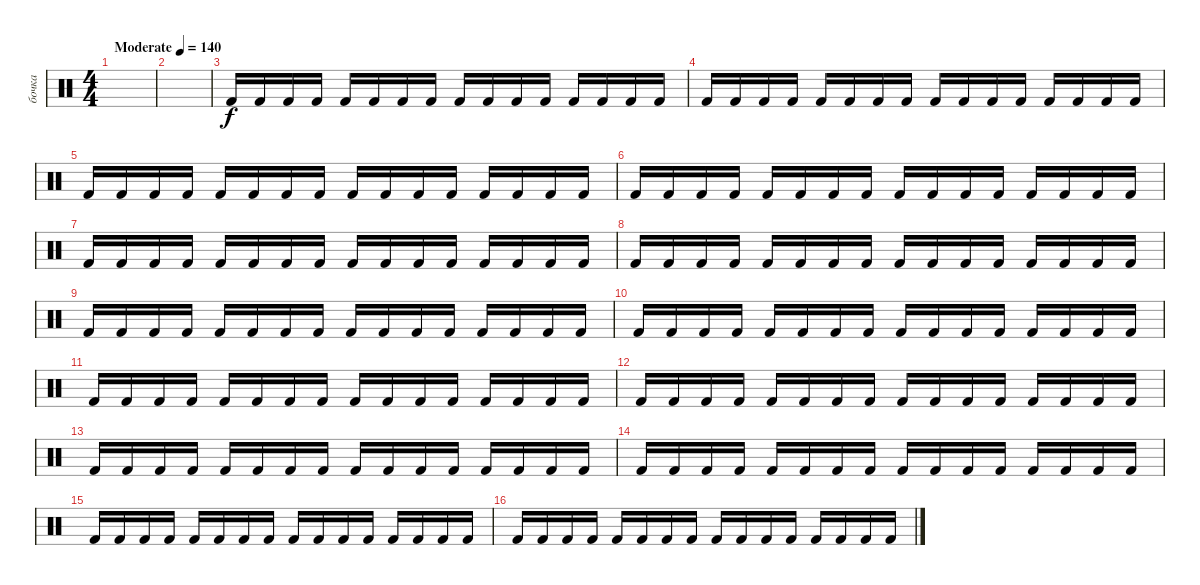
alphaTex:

\track ("бочка" "бочка") {mute instrument percussion}
\staff {score}
\articulation defaults
\ts (4 4)
\tempo (140 "Moderate")
\clef neutral
\ks c
|
|
"Kick (hit) 2".16 "Kick (hit) 2".16 "Kick (hit) 2".16 "Kick (hit) 2".16 "Kick (hit) 2".16 "Kick (hit) 2".16 "Kick (hit) 2".16 "Kick (hit) 2".16 "Kick (hit) 2".16 "Kick (hit) 2".16 "Kick (hit) 2".16 "Kick (hit) 2".16 "Kick (hit) 2".16 "Kick (hit) 2".16 "Kick (hit) 2".16 "Kick (hit) 2".16 |
"Kick (hit) 2".16 "Kick (hit) 2".16 "Kick (hit) 2".16 "Kick (hit) 2".16 "Kick (hit) 2".16 "Kick (hit) 2".16 "Kick (hit) 2".16 "Kick (hit) 2".16 "Kick (hit) 2".16 "Kick (hit) 2".16 "Kick (hit) 2".16 "Kick (hit) 2".16 "Kick (hit) 2".16 "Kick (hit) 2".16 "Kick (hit) 2".16 "Kick (hit) 2".16 |
"Kick (hit) 2".16 "Kick (hit) 2".16 "Kick (hit) 2".16 "Kick (hit) 2".16 "Kick (hit) 2".16 "Kick (hit) 2".16 "Kick (hit) 2".16 "Kick (hit) 2".16 "Kick (hit) 2".16 "Kick (hit) 2".16 "Kick (hit) 2".16 "Kick (hit) 2".16 "Kick (hit) 2".16 "Kick (hit) 2".16 "Kick (hit) 2".16 "Kick (hit) 2".16 |
"Kick (hit) 2".16 "Kick (hit) 2".16 "Kick (hit) 2".16 "Kick (hit) 2".16 "Kick (hit) 2".16 "Kick (hit) 2".16 "Kick (hit) 2".16 "Kick (hit) 2".16 "Kick (hit) 2".16 "Kick (hit) 2".16 "Kick (hit) 2".16 "Kick (hit) 2".16 "Kick (hit) 2".16 "Kick (hit) 2".16 "Kick (hit) 2".16 "Kick (hit) 2".16 |
"Kick (hit) 2".16 "Kick (hit) 2".16 "Kick (hit) 2".16 "Kick (hit) 2".16 "Kick (hit) 2".16 "Kick (hit) 2".16 "Kick (hit) 2".16 "Kick (hit) 2".16 "Kick (hit) 2".16 "Kick (hit) 2".16 "Kick (hit) 2".16 "Kick (hit) 2".16 "Kick (hit) 2".16 "Kick (hit) 2".16 "Kick (hit) 2".16 "Kick (hit) 2".16 |
"Kick (hit) 2".16 "Kick (hit) 2".16 "Kick (hit) 2".16 "Kick (hit) 2".16 "Kick (hit) 2".16 "Kick (hit) 2".16 "Kick (hit) 2".16 "Kick (hit) 2".16 "Kick (hit) 2".16 "Kick (hit) 2".16 "Kick (hit) 2".16 "Kick (hit) 2".16 "Kick (hit) 2".16 "Kick (hit) 2".16 "Kick (hit) 2".16 "Kick (hit) 2".16 |
"Kick (hit) 2".16 "Kick (hit) 2".16 "Kick (hit) 2".16 "Kick (hit) 2".16 "Kick (hit) 2".16 "Kick (hit) 2".16 "Kick (hit) 2".16 "Kick (hit) 2".16 "Kick (hit) 2".16 "Kick (hit) 2".16 "Kick (hit) 2".16 "Kick (hit) 2".16 "Kick (hit) 2".16 "Kick (hit) 2".16 "Kick (hit) 2".16 "Kick (hit) 2".16 |
"Kick (hit) 2".16 "Kick (hit) 2".16 "Kick (hit) 2".16 "Kick (hit) 2".16 "Kick (hit) 2".16 "Kick (hit) 2".16 "Kick (hit) 2".16 "Kick (hit) 2".16 "Kick (hit) 2".16 "Kick (hit) 2".16 "Kick (hit) 2".16 "Kick (hit) 2".16 "Kick (hit) 2".16 "Kick (hit) 2".16 "Kick (hit) 2".16 "Kick (hit) 2".16 |
"Kick (hit) 2".16 "Kick (hit) 2".16 "Kick (hit) 2".16 "Kick (hit) 2".16 "Kick (hit) 2".16 "Kick (hit) 2".16 "Kick (hit) 2".16 "Kick (hit) 2".16 "Kick (hit) 2".16 "Kick (hit) 2".16 "Kick (hit) 2".16 "Kick (hit) 2".16 "Kick (hit) 2".16 "Kick (hit) 2".16 "Kick (hit) 2".16 "Kick (hit) 2".16 |
"Kick (hit) 2".16 "Kick (hit) 2".16 "Kick (hit) 2".16 "Kick (hit) 2".16 "Kick (hit) 2".16 "Kick (hit) 2".16 "Kick (hit) 2".16 "Kick (hit) 2".16 "Kick (hit) 2".16 "Kick (hit) 2".16 "Kick (hit) 2".16 "Kick (hit) 2".16 "Kick (hit) 2".16 "Kick (hit) 2".16 "Kick (hit) 2".16 "Kick (hit) 2".16 |
"Kick (hit) 2".16 "Kick (hit) 2".16 "Kick (hit) 2".16 "Kick (hit) 2".16 "Kick (hit) 2".16 "Kick (hit) 2".16 "Kick (hit) 2".16 "Kick (hit) 2".16 "Kick (hit) 2".16 "Kick (hit) 2".16 "Kick (hit) 2".16 "Kick (hit) 2".16 "Kick (hit) 2".16 "Kick (hit) 2".16 "Kick (hit) 2".16 "Kick (hit) 2".16 |
"Kick (hit) 2".16 "Kick (hit) 2".16 "Kick (hit) 2".16 "Kick (hit) 2".16 "Kick (hit) 2".16 "Kick (hit) 2".16 "Kick (hit) 2".16 "Kick (hit) 2".16 "Kick (hit) 2".16 "Kick (hit) 2".16 "Kick (hit) 2".16 "Kick (hit) 2".16 "Kick (hit) 2".16 "Kick (hit) 2".16 "Kick (hit) 2".16 "Kick (hit) 2".16 |
"Kick (hit) 2".16 "Kick (hit) 2".16 "Kick (hit) 2".16 "Kick (hit) 2".16 "Kick (hit) 2".16 "Kick (hit) 2".16 "Kick (hit) 2".16 "Kick (hit) 2".16 "Kick (hit) 2".16 "Kick (hit) 2".16 "Kick (hit) 2".16 "Kick (hit) 2".16 "Kick (hit) 2".16 "Kick (hit) 2".16 "Kick (hit) 2".16 "Kick (hit) 2".16 |
"Kick (hit) 2".16 "Kick (hit) 2".16 "Kick (hit) 2".16 "Kick (hit) 2".16 "Kick (hit) 2".16 "Kick (hit) 2".16 "Kick (hit) 2".16 "Kick (hit) 2".16 "Kick (hit) 2".16 "Kick (hit) 2".16 "Kick (hit) 2".16 "Kick (hit) 2".16 "Kick (hit) 2".16 "Kick (hit) 2".16 "Kick (hit) 2".16 "Kick (hit) 2".16
